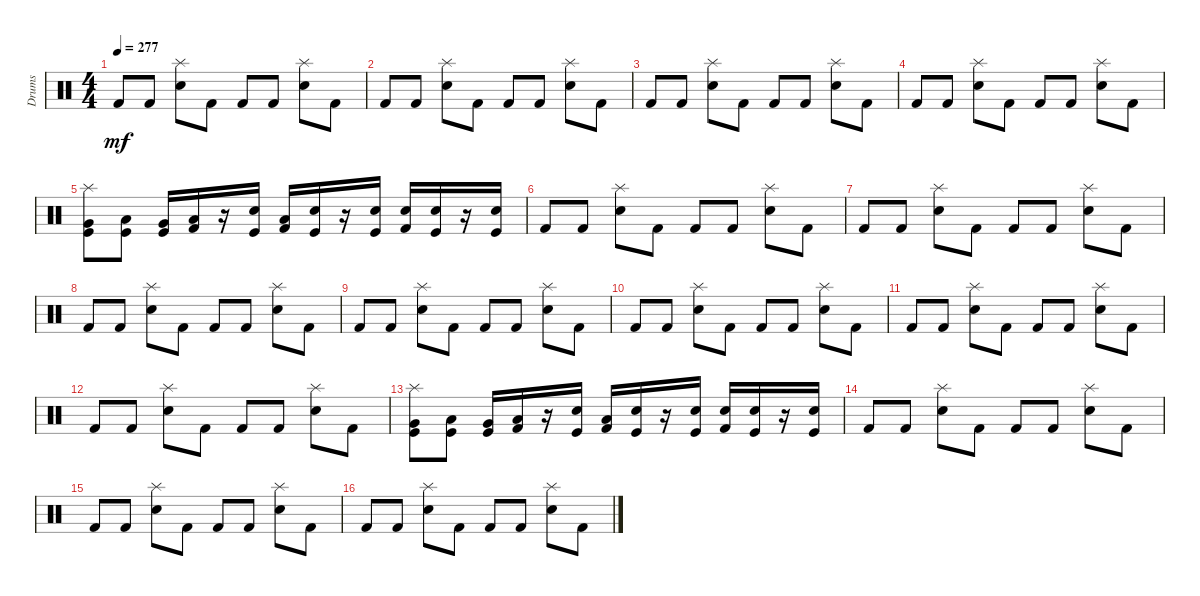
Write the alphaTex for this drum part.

\track ("Drums" "Drums") {instrument percussion}
\staff {score}
\articulation defaults
\ts (4 4)
\tempo 277
\clef neutral
\ks c "Kick (hit) 2".8{dy mf} "Kick (hit) 2".8
("Electric Snare (hit)" "Splash (hit)").8 "Kick (hit) 2".8 "Kick (hit) 2".8 "Kick (hit) 2".8 ("Splash (hit)" "Electric Snare (hit)").8 "Kick (hit) 2".8 |
"Kick (hit) 2".8 "Kick (hit) 2".8 ("Splash (hit)" "Electric Snare (hit)").8 "Kick (hit) 2".8 "Kick (hit) 2".8 "Kick (hit) 2".8 ("Electric Snare (hit)" "Splash (hit)").8 "Kick (hit) 2".8 |
"Kick (hit) 2".8 "Kick (hit) 2".8 ("Electric Snare (hit)" "Splash (hit)").8 "Kick (hit) 2".8 "Kick (hit) 2".8 "Kick (hit) 2".8 ("Electric Snare (hit)" "Splash (hit)").8 "Kick (hit) 2".8 |
"Kick (hit) 2".8 "Kick (hit) 2".8 ("Electric Snare (hit)" "Splash (hit)").8 "Kick (hit) 2".8 "Kick (hit) 2".8 "Kick (hit) 2".8 ("Splash (hit)" "Electric Snare (hit)").8 "Kick (hit) 2".8 |
("Splash (hit)" "Kick (hit)" "Very Low Tom (hit)").8 ("Kick (hit)" "Low Floor Tom (hit)").8 ("Kick (hit)" "Very Low Tom (hit)").16 ("Kick (hit) 2" "Low Floor Tom (hit)").16 r.16 ("Electric Snare (hit)" "Kick (hit)").16 ("Kick (hit) 2" "Low Floor Tom (hit)").16 ("Electric Snare (hit)" "Kick (hit)").16 r.16 ("Kick (hit)" "Snare (hit) 2").16 ("Kick (hit) 2" "Electric Snare (hit)").16 ("Snare (hit) 2" "Kick (hit)").16 r.16 ("Electric Snare (hit)" "Kick (hit)").16 |
"Kick (hit) 2".8 "Kick (hit) 2".8 ("Splash (hit)" "Electric Snare (hit)").8 "Kick (hit) 2".8 "Kick (hit) 2".8 "Kick (hit) 2".8 ("Splash (hit)" "Electric Snare (hit)").8 "Kick (hit) 2".8 |
"Kick (hit) 2".8 "Kick (hit) 2".8 ("Electric Snare (hit)" "Splash (hit)").8 "Kick (hit) 2".8 "Kick (hit) 2".8 "Kick (hit) 2".8 ("Splash (hit)" "Electric Snare (hit)").8 "Kick (hit) 2".8 |
"Kick (hit) 2".8 "Kick (hit) 2".8 ("Electric Snare (hit)" "Splash (hit)").8 "Kick (hit) 2".8 "Kick (hit) 2".8 "Kick (hit) 2".8 ("Splash (hit)" "Electric Snare (hit)").8 "Kick (hit) 2".8 |
"Kick (hit) 2".8 "Kick (hit) 2".8 ("Splash (hit)" "Electric Snare (hit)").8 "Kick (hit) 2".8 "Kick (hit) 2".8 "Kick (hit) 2".8 ("Electric Snare (hit)" "Splash (hit)").8 "Kick (hit) 2".8 |
"Kick (hit) 2".8 "Kick (hit) 2".8 ("Electric Snare (hit)" "Splash (hit)").8 "Kick (hit) 2".8 "Kick (hit) 2".8 "Kick (hit) 2".8 ("Splash (hit)" "Electric Snare (hit)").8 "Kick (hit) 2".8 |
"Kick (hit) 2".8 "Kick (hit) 2".8 ("Splash (hit)" "Electric Snare (hit)").8 "Kick (hit) 2".8 "Kick (hit) 2".8 "Kick (hit) 2".8 ("Electric Snare (hit)" "Splash (hit)").8 "Kick (hit) 2".8 |
"Kick (hit) 2".8 "Kick (hit) 2".8 ("Electric Snare (hit)" "Splash (hit)").8 "Kick (hit) 2".8 "Kick (hit) 2".8 "Kick (hit) 2".8 ("Electric Snare (hit)" "Splash (hit)").8 "Kick (hit) 2".8 |
("Splash (hit)" "Very Low Tom (hit)" "Kick (hit)").8 ("Low Floor Tom (hit)" "Kick (hit)").8 ("Kick (hit)" "Very Low Tom (hit)").16 ("Kick (hit) 2" "Low Floor Tom (hit)").16 r.16 ("Electric Snare (hit)" "Kick (hit)").16 ("Kick (hit) 2" "Low Floor Tom (hit)").16 ("Electric Snare (hit)" "Kick (hit)").16 r.16 ("Snare (hit) 2" "Kick (hit)").16 ("Kick (hit) 2" "Electric Snare (hit)").16 ("Kick (hit)" "Snare (hit) 2").16 r.16 ("Electric Snare (hit)" "Kick (hit)").16 |
"Kick (hit) 2".8 "Kick (hit) 2".8 ("Electric Snare (hit)" "Splash (hit)").8 "Kick (hit) 2".8 "Kick (hit) 2".8 "Kick (hit) 2".8 ("Electric Snare (hit)" "Splash (hit)").8 "Kick (hit) 2".8 |
"Kick (hit) 2".8 "Kick (hit) 2".8 ("Electric Snare (hit)" "Splash (hit)").8 "Kick (hit) 2".8 "Kick (hit) 2".8 "Kick (hit) 2".8 ("Splash (hit)" "Electric Snare (hit)").8 "Kick (hit) 2".8 |
"Kick (hit) 2".8 "Kick (hit) 2".8 ("Electric Snare (hit)" "Splash (hit)").8 "Kick (hit) 2".8 "Kick (hit) 2".8 "Kick (hit) 2".8 ("Electric Snare (hit)" "Splash (hit)").8 "Kick (hit) 2".8
